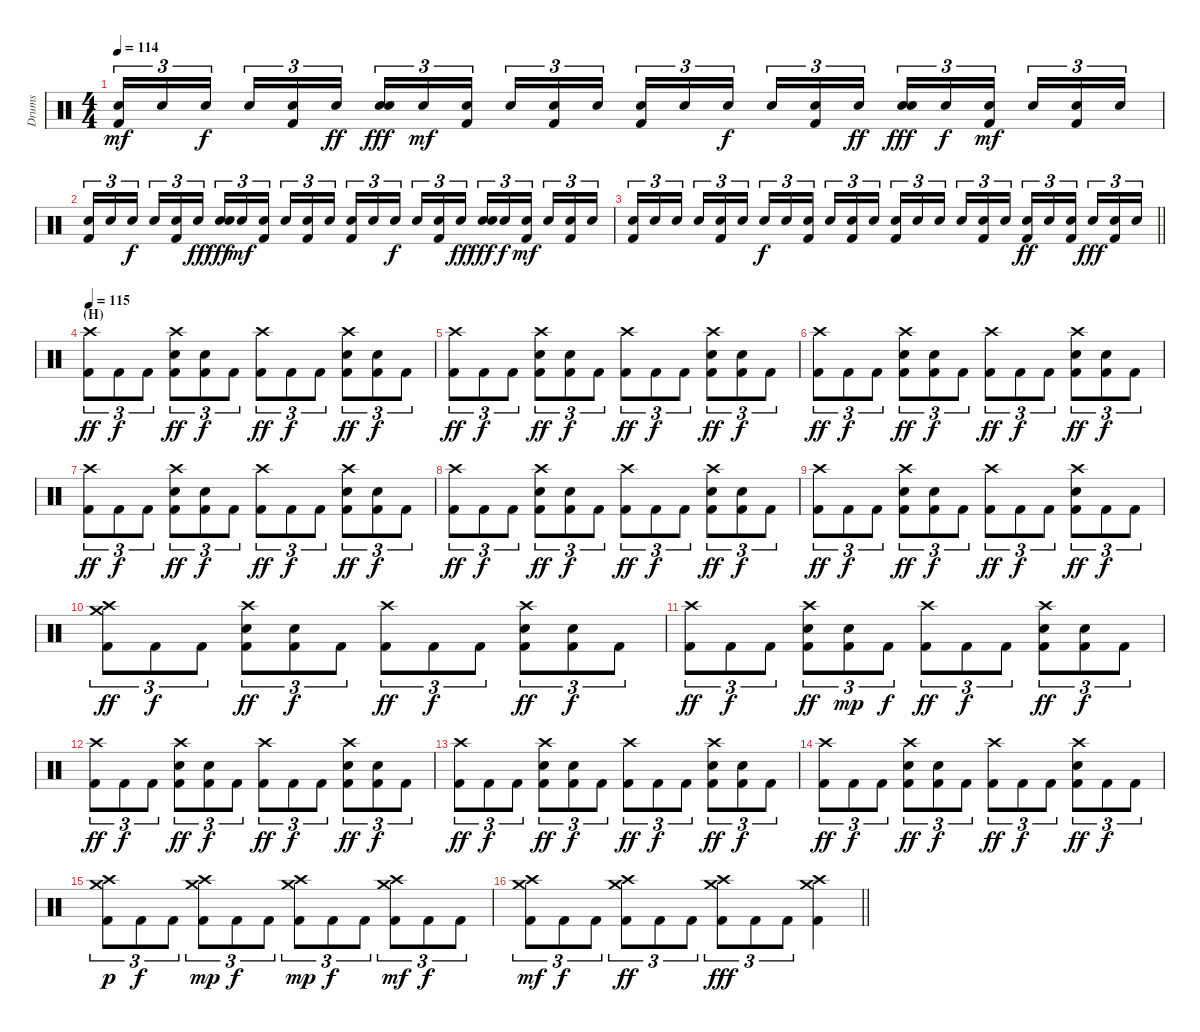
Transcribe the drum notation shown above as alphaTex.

\track ("Drums" "Drums") {instrument percussion}
\staff {score}
\articulation defaults
\ts (4 4)
\tempo 114
\clef neutral
\ks c
("Snare (hit) 2" "Kick (hit) 2").16{tu (3 2) dy mf} "Snare (hit) 2".16{tu (3 2)} "Snare (hit) 2".16{tu (3 2) dy f beam splitsecondary} "Snare (hit) 2".16{tu (3 2)} ("Snare (hit) 2" "Kick (hit) 2").16{tu (3 2)} "Snare (hit) 2".16{tu (3 2) dy ff} ("Snare (hit) 2" "Snare (hit) 2").16{tu (3 2) dy fff} "Snare (hit) 2".16{tu (3 2) dy mf} ("Snare (hit) 2" "Kick (hit) 2").16{tu (3 2) beam splitsecondary} "Snare (hit) 2".16{tu (3 2)} ("Snare (hit) 2" "Kick (hit) 2").16{tu (3 2)} "Snare (hit) 2".16{tu (3 2)} ("Snare (hit) 2" "Kick (hit) 2").16{tu (3 2)} "Snare (hit) 2".16{tu (3 2)} "Snare (hit) 2".16{tu (3 2) dy f beam splitsecondary} "Snare (hit) 2".16{tu (3 2)} ("Snare (hit) 2" "Kick (hit) 2").16{tu (3 2)} "Snare (hit) 2".16{tu (3 2) dy ff} ("Snare (hit) 2" "Snare (hit) 2").16{tu (3 2) dy fff} "Snare (hit) 2".16{tu (3 2) dy f} ("Snare (hit) 2" "Kick (hit) 2").16{tu (3 2) dy mf beam splitsecondary} "Snare (hit) 2".16{tu (3 2)} ("Snare (hit) 2" "Kick (hit) 2").16{tu (3 2)} "Snare (hit) 2".16{tu (3 2)} |
("Snare (hit) 2" "Kick (hit) 2").16{tu (3 2)} "Snare (hit) 2".16{tu (3 2)} "Snare (hit) 2".16{tu (3 2) dy f beam splitsecondary} "Snare (hit) 2".16{tu (3 2)} ("Snare (hit) 2" "Kick (hit) 2").16{tu (3 2)} "Snare (hit) 2".16{tu (3 2) dy ff} ("Snare (hit) 2" "Snare (hit) 2").16{tu (3 2) dy fff} "Snare (hit) 2".16{tu (3 2) dy mf} ("Snare (hit) 2" "Kick (hit) 2").16{tu (3 2) beam splitsecondary} "Snare (hit) 2".16{tu (3 2)} ("Snare (hit) 2" "Kick (hit) 2").16{tu (3 2)} "Snare (hit) 2".16{tu (3 2)} ("Snare (hit) 2" "Kick (hit) 2").16{tu (3 2)} "Snare (hit) 2".16{tu (3 2)} "Snare (hit) 2".16{tu (3 2) dy f beam splitsecondary} "Snare (hit) 2".16{tu (3 2)} ("Snare (hit) 2" "Kick (hit) 2").16{tu (3 2)} "Snare (hit) 2".16{tu (3 2) dy ff} ("Snare (hit) 2" "Snare (hit) 2").16{tu (3 2) dy fff} "Snare (hit) 2".16{tu (3 2) dy f} ("Snare (hit) 2" "Kick (hit) 2").16{tu (3 2) dy mf beam splitsecondary} "Snare (hit) 2".16{tu (3 2)} ("Snare (hit) 2" "Kick (hit) 2").16{tu (3 2)} "Snare (hit) 2".16{tu (3 2)} |
\barLineRight lightlight
("Snare (hit) 2" "Kick (hit) 2").16{tu (3 2)} "Snare (hit) 2".16{tu (3 2)} "Snare (hit) 2".16{tu (3 2) beam splitsecondary} "Snare (hit) 2".16{tu (3 2)} ("Snare (hit) 2" "Kick (hit) 2").16{tu (3 2)} "Snare (hit) 2".16{tu (3 2)} "Snare (hit) 2".16{tu (3 2) dy f} "Snare (hit) 2".16{tu (3 2)} ("Snare (hit) 2" "Kick (hit) 2").16{tu (3 2) beam splitsecondary} "Snare (hit) 2".16{tu (3 2)} ("Snare (hit) 2" "Kick (hit) 2").16{tu (3 2)} "Snare (hit) 2".16{tu (3 2)} ("Snare (hit) 2" "Kick (hit) 2").16{tu (3 2)} "Snare (hit) 2".16{tu (3 2)} "Snare (hit) 2".16{tu (3 2) beam splitsecondary} "Snare (hit) 2".16{tu (3 2)} ("Snare (hit) 2" "Kick (hit) 2").16{tu (3 2)} "Snare (hit) 2".16{tu (3 2)} ("Snare (hit) 2" "Kick (hit) 2").16{tu (3 2) dy ff} "Snare (hit) 2".16{tu (3 2)} ("Snare (hit) 2" "Kick (hit) 2").16{tu (3 2) beam splitsecondary} "Snare (hit) 2".16{tu (3 2) dy fff} ("Snare (hit) 2" "Kick (hit) 2").16{tu (3 2)} "Snare (hit) 2".16{tu (3 2)} |
\section ("" "(H)")
\tempo 115
("Crash high (hit)" "Kick (hit) 2").8{tu (3 2) dy ff} "Kick (hit) 2".8{tu (3 2) dy f} "Kick (hit) 2".8{tu (3 2)} ("Crash high (hit)" "Snare (hit) 2" "Kick (hit) 2").8{tu (3 2) dy ff} ("Snare (hit) 2" "Kick (hit) 2").8{tu (3 2) dy f} "Kick (hit) 2".8{tu (3 2)} ("Crash high (hit)" "Kick (hit) 2").8{tu (3 2) dy ff} "Kick (hit) 2".8{tu (3 2) dy f} "Kick (hit) 2".8{tu (3 2)} ("Crash high (hit)" "Snare (hit) 2" "Kick (hit) 2").8{tu (3 2) dy ff} ("Snare (hit) 2" "Kick (hit) 2").8{tu (3 2) dy f} "Kick (hit) 2".8{tu (3 2)} |
("Crash high (hit)" "Kick (hit) 2").8{tu (3 2) dy ff} "Kick (hit) 2".8{tu (3 2) dy f} "Kick (hit) 2".8{tu (3 2)} ("Crash high (hit)" "Snare (hit) 2" "Kick (hit) 2").8{tu (3 2) dy ff} ("Snare (hit) 2" "Kick (hit) 2").8{tu (3 2) dy f} "Kick (hit) 2".8{tu (3 2)} ("Crash high (hit)" "Kick (hit) 2").8{tu (3 2) dy ff} "Kick (hit) 2".8{tu (3 2) dy f} "Kick (hit) 2".8{tu (3 2)} ("Crash high (hit)" "Snare (hit) 2" "Kick (hit) 2").8{tu (3 2) dy ff} ("Snare (hit) 2" "Kick (hit) 2").8{tu (3 2) dy f} "Kick (hit) 2".8{tu (3 2)} |
("Crash high (hit)" "Kick (hit) 2").8{tu (3 2) dy ff} "Kick (hit) 2".8{tu (3 2) dy f} "Kick (hit) 2".8{tu (3 2)} ("Crash high (hit)" "Snare (hit) 2" "Kick (hit) 2").8{tu (3 2) dy ff} ("Snare (hit) 2" "Kick (hit) 2").8{tu (3 2) dy f} "Kick (hit) 2".8{tu (3 2)} ("Crash high (hit)" "Kick (hit) 2").8{tu (3 2) dy ff} "Kick (hit) 2".8{tu (3 2) dy f} "Kick (hit) 2".8{tu (3 2)} ("Crash high (hit)" "Snare (hit) 2" "Kick (hit) 2").8{tu (3 2) dy ff} ("Snare (hit) 2" "Kick (hit) 2").8{tu (3 2) dy f} "Kick (hit) 2".8{tu (3 2)} |
("Crash high (hit)" "Kick (hit) 2").8{tu (3 2) dy ff} "Kick (hit) 2".8{tu (3 2) dy f} "Kick (hit) 2".8{tu (3 2)} ("Crash high (hit)" "Snare (hit) 2" "Kick (hit) 2").8{tu (3 2) dy ff} ("Snare (hit) 2" "Kick (hit) 2").8{tu (3 2) dy f} "Kick (hit) 2".8{tu (3 2)} ("Crash high (hit)" "Kick (hit) 2").8{tu (3 2) dy ff} "Kick (hit) 2".8{tu (3 2) dy f} "Kick (hit) 2".8{tu (3 2)} ("Crash high (hit)" "Snare (hit) 2" "Kick (hit) 2").8{tu (3 2) dy ff} ("Snare (hit) 2" "Kick (hit) 2").8{tu (3 2) dy f} "Kick (hit) 2".8{tu (3 2)} |
("Crash high (hit)" "Kick (hit) 2").8{tu (3 2) dy ff} "Kick (hit) 2".8{tu (3 2) dy f} "Kick (hit) 2".8{tu (3 2)} ("Crash high (hit)" "Snare (hit) 2" "Kick (hit) 2").8{tu (3 2) dy ff} ("Snare (hit) 2" "Kick (hit) 2").8{tu (3 2) dy f} "Kick (hit) 2".8{tu (3 2)} ("Crash high (hit)" "Kick (hit) 2").8{tu (3 2) dy ff} "Kick (hit) 2".8{tu (3 2) dy f} "Kick (hit) 2".8{tu (3 2)} ("Crash high (hit)" "Snare (hit) 2" "Kick (hit) 2").8{tu (3 2) dy ff} ("Snare (hit) 2" "Kick (hit) 2").8{tu (3 2) dy f} "Kick (hit) 2".8{tu (3 2)} |
("Crash high (hit)" "Kick (hit) 2").8{tu (3 2) dy ff} "Kick (hit) 2".8{tu (3 2) dy f} "Kick (hit) 2".8{tu (3 2)} ("Crash high (hit)" "Snare (hit) 2" "Kick (hit) 2").8{tu (3 2) dy ff} ("Snare (hit) 2" "Kick (hit) 2").8{tu (3 2) dy f} "Kick (hit) 2".8{tu (3 2)} ("Crash high (hit)" "Kick (hit) 2").8{tu (3 2) dy ff} "Kick (hit) 2".8{tu (3 2) dy f} "Kick (hit) 2".8{tu (3 2)} ("Crash high (hit)" "Snare (hit) 2" "Kick (hit) 2").8{tu (3 2) dy ff} "Kick (hit) 2".8{tu (3 2) dy f} "Kick (hit) 2".8{tu (3 2)} |
("Crash high (hit)" "Crash medium (hit)" "Kick (hit) 2").8{tu (3 2) dy ff} "Kick (hit) 2".8{tu (3 2) dy f} "Kick (hit) 2".8{tu (3 2)} ("Crash high (hit)" "Snare (hit) 2" "Kick (hit) 2").8{tu (3 2) dy ff} ("Snare (hit) 2" "Kick (hit) 2").8{tu (3 2) dy f} "Kick (hit) 2".8{tu (3 2)} ("Crash high (hit)" "Kick (hit) 2").8{tu (3 2) dy ff} "Kick (hit) 2".8{tu (3 2) dy f} "Kick (hit) 2".8{tu (3 2)} ("Crash high (hit)" "Snare (hit) 2" "Kick (hit) 2").8{tu (3 2) dy ff} ("Snare (hit) 2" "Kick (hit) 2").8{tu (3 2) dy f} "Kick (hit) 2".8{tu (3 2)} |
("Crash high (hit)" "Kick (hit) 2").8{tu (3 2) dy ff} "Kick (hit) 2".8{tu (3 2) dy f} "Kick (hit) 2".8{tu (3 2)} ("Crash high (hit)" "Snare (hit) 2" "Kick (hit) 2").8{tu (3 2) dy ff} ("Snare (hit) 2" "Kick (hit) 2").8{tu (3 2) dy mp} "Kick (hit) 2".8{tu (3 2) dy f} ("Crash high (hit)" "Kick (hit) 2").8{tu (3 2) dy ff} "Kick (hit) 2".8{tu (3 2) dy f} "Kick (hit) 2".8{tu (3 2)} ("Crash high (hit)" "Snare (hit) 2" "Kick (hit) 2").8{tu (3 2) dy ff} ("Snare (hit) 2" "Kick (hit) 2").8{tu (3 2) dy f} "Kick (hit) 2".8{tu (3 2)} |
("Crash high (hit)" "Kick (hit) 2").8{tu (3 2) dy ff} "Kick (hit) 2".8{tu (3 2) dy f} "Kick (hit) 2".8{tu (3 2)} ("Crash high (hit)" "Snare (hit) 2" "Kick (hit) 2").8{tu (3 2) dy ff} ("Snare (hit) 2" "Kick (hit) 2").8{tu (3 2) dy f} "Kick (hit) 2".8{tu (3 2)} ("Crash high (hit)" "Kick (hit) 2").8{tu (3 2) dy ff} "Kick (hit) 2".8{tu (3 2) dy f} "Kick (hit) 2".8{tu (3 2)} ("Crash high (hit)" "Snare (hit) 2" "Kick (hit) 2").8{tu (3 2) dy ff} ("Snare (hit) 2" "Kick (hit) 2").8{tu (3 2) dy f} "Kick (hit) 2".8{tu (3 2)} |
("Crash high (hit)" "Kick (hit) 2").8{tu (3 2) dy ff} "Kick (hit) 2".8{tu (3 2) dy f} "Kick (hit) 2".8{tu (3 2)} ("Crash high (hit)" "Snare (hit) 2" "Kick (hit) 2").8{tu (3 2) dy ff} ("Snare (hit) 2" "Kick (hit) 2").8{tu (3 2) dy f} "Kick (hit) 2".8{tu (3 2)} ("Crash high (hit)" "Kick (hit) 2").8{tu (3 2) dy ff} "Kick (hit) 2".8{tu (3 2) dy f} "Kick (hit) 2".8{tu (3 2)} ("Crash high (hit)" "Snare (hit) 2" "Kick (hit) 2").8{tu (3 2) dy ff} ("Snare (hit) 2" "Kick (hit) 2").8{tu (3 2) dy f} "Kick (hit) 2".8{tu (3 2)} |
("Crash high (hit)" "Kick (hit) 2").8{tu (3 2) dy ff} "Kick (hit) 2".8{tu (3 2) dy f} "Kick (hit) 2".8{tu (3 2)} ("Crash high (hit)" "Snare (hit) 2" "Kick (hit) 2").8{tu (3 2) dy ff} ("Snare (hit) 2" "Kick (hit) 2").8{tu (3 2) dy f} "Kick (hit) 2".8{tu (3 2)} ("Crash high (hit)" "Kick (hit) 2").8{tu (3 2) dy ff} "Kick (hit) 2".8{tu (3 2) dy f} "Kick (hit) 2".8{tu (3 2)} ("Crash high (hit)" "Snare (hit) 2" "Kick (hit) 2").8{tu (3 2) dy ff} "Kick (hit) 2".8{tu (3 2) dy f} "Kick (hit) 2".8{tu (3 2)} |
("Crash high (hit)" "Crash medium (hit)" "Kick (hit) 2").8{tu (3 2) dy p} "Kick (hit) 2".8{tu (3 2) dy f} "Kick (hit) 2".8{tu (3 2)} ("Crash high (hit)" "Crash medium (hit)" "Kick (hit) 2").8{tu (3 2) dy mp} "Kick (hit) 2".8{tu (3 2) dy f} "Kick (hit) 2".8{tu (3 2)} ("Crash high (hit)" "Crash medium (hit)" "Kick (hit) 2").8{tu (3 2) dy mp} "Kick (hit) 2".8{tu (3 2) dy f} "Kick (hit) 2".8{tu (3 2)} ("Crash high (hit)" "Crash medium (hit)" "Kick (hit) 2").8{tu (3 2) dy mf} "Kick (hit) 2".8{tu (3 2) dy f} "Kick (hit) 2".8{tu (3 2)} |
\barLineRight lightlight
("Crash high (hit)" "Crash medium (hit)" "Kick (hit) 2").8{tu (3 2) dy mf} "Kick (hit) 2".8{tu (3 2) dy f} "Kick (hit) 2".8{tu (3 2)} ("Crash high (hit)" "Crash medium (hit)" "Kick (hit) 2").8{tu (3 2) dy ff} "Kick (hit) 2".8{tu (3 2)} "Kick (hit) 2".8{tu (3 2)} ("Crash high (hit)" "Crash medium (hit)" "Kick (hit) 2").8{tu (3 2) dy fff} "Kick (hit) 2".8{tu (3 2)} "Kick (hit) 2".8{tu (3 2)} ("Crash high (hit)" "Crash medium (hit)" "Kick (hit) 2").4
